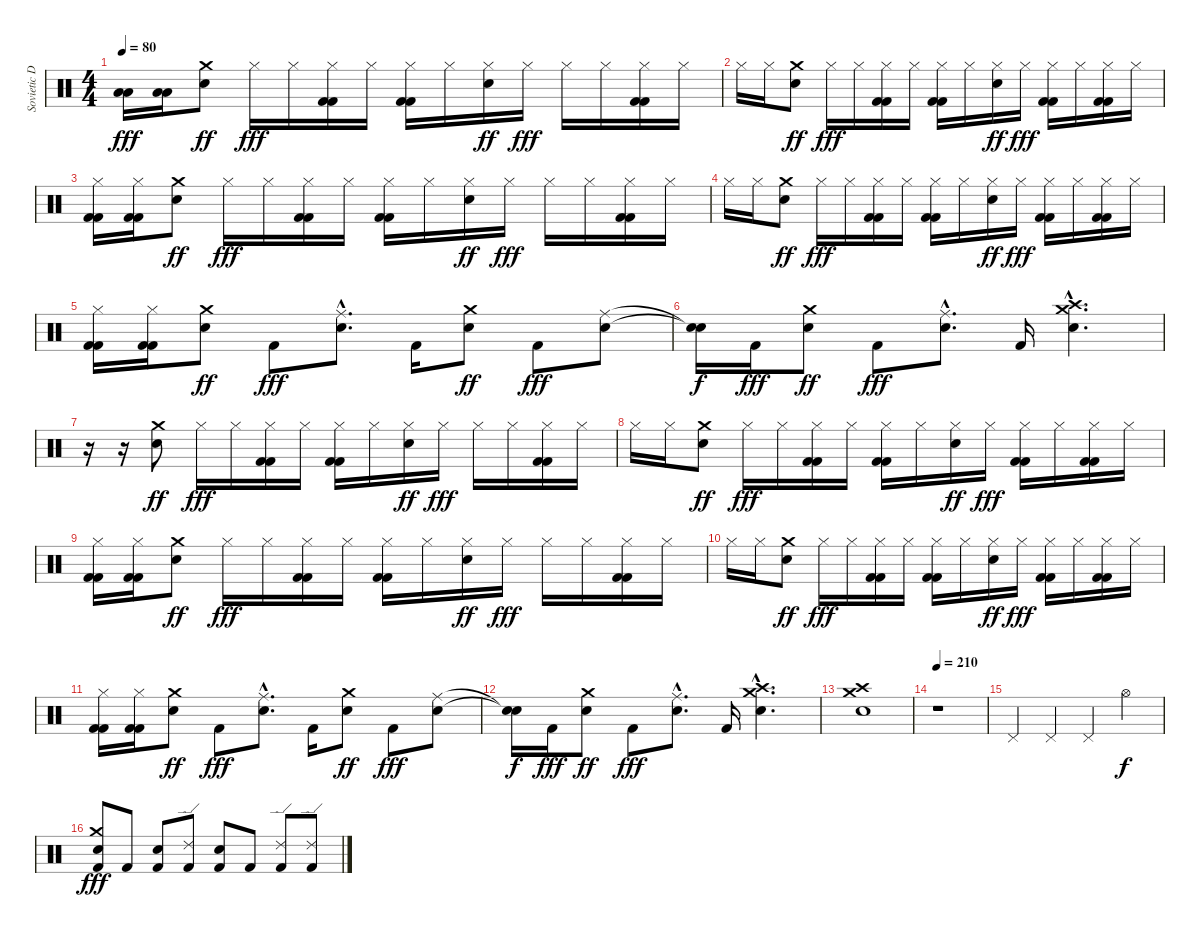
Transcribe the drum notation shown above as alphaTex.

\track ("Sovietic Drummer" "Sovietic D") {instrument percussion}
\staff {score}
\articulation defaults
\ts (4 4)
\tempo 80
\clef neutral
\ks c
("Low Tom (hit)" "Low Tom (hit)").16{dy fff} ("Low Tom (hit)" "Low Tom (hit)").16 ("Electric Snare (hit)" "Crash medium (hit)").8{dy ff} "Hi-Hat (closed)".16{dy fff} "Hi-Hat (closed)".16 ("Hi-Hat (closed)" "Kick (hit) 2" "Kick (hit) 2").16 "Hi-Hat (closed)".16 ("Hi-Hat (closed)" "Kick (hit) 2" "Kick (hit) 2").16 "Hi-Hat (closed)".16 ("Hi-Hat (closed)" "Electric Snare (hit)").16{dy ff} "Hi-Hat (closed)".16{dy fff} "Hi-Hat (closed)".16 "Hi-Hat (closed)".16 ("Hi-Hat (closed)" "Kick (hit) 2" "Kick (hit) 2").16 "Hi-Hat (closed)".16 |
"Hi-Hat (closed)".16 "Hi-Hat (closed)".16 ("Electric Snare (hit)" "Crash medium (hit)").8{dy ff} "Hi-Hat (closed)".16{dy fff} "Hi-Hat (closed)".16 ("Hi-Hat (closed)" "Kick (hit) 2" "Kick (hit) 2").16 "Hi-Hat (closed)".16 ("Hi-Hat (closed)" "Kick (hit) 2" "Kick (hit) 2").16 "Hi-Hat (closed)".16 ("Hi-Hat (closed)" "Electric Snare (hit)").16{dy ff} "Hi-Hat (closed)".16{dy fff} ("Hi-Hat (closed)" "Kick (hit) 2" "Kick (hit) 2").16 "Hi-Hat (closed)".16 ("Hi-Hat (closed)" "Kick (hit) 2" "Kick (hit) 2").16 "Hi-Hat (closed)".16 |
("Hi-Hat (closed)" "Kick (hit) 2" "Kick (hit) 2").16 ("Hi-Hat (closed)" "Kick (hit) 2" "Kick (hit) 2").16 ("Electric Snare (hit)" "Crash medium (hit)").8{dy ff} "Hi-Hat (closed)".16{dy fff} "Hi-Hat (closed)".16 ("Hi-Hat (closed)" "Kick (hit) 2" "Kick (hit) 2").16 "Hi-Hat (closed)".16 ("Hi-Hat (closed)" "Kick (hit) 2" "Kick (hit) 2").16 "Hi-Hat (closed)".16 ("Hi-Hat (closed)" "Electric Snare (hit)").16{dy ff} "Hi-Hat (closed)".16{dy fff} "Hi-Hat (closed)".16 "Hi-Hat (closed)".16 ("Hi-Hat (closed)" "Kick (hit) 2" "Kick (hit) 2").16 "Hi-Hat (closed)".16 |
"Hi-Hat (closed)".16 "Hi-Hat (closed)".16 ("Electric Snare (hit)" "Crash medium (hit)").8{dy ff} "Hi-Hat (closed)".16{dy fff} "Hi-Hat (closed)".16 ("Hi-Hat (closed)" "Kick (hit) 2" "Kick (hit) 2").16 "Hi-Hat (closed)".16 ("Hi-Hat (closed)" "Kick (hit) 2" "Kick (hit) 2").16 "Hi-Hat (closed)".16 ("Hi-Hat (closed)" "Electric Snare (hit)").16{dy ff} "Hi-Hat (closed)".16{dy fff} ("Hi-Hat (closed)" "Kick (hit) 2" "Kick (hit) 2").16 "Hi-Hat (closed)".16 ("Hi-Hat (closed)" "Kick (hit) 2" "Kick (hit) 2").16 "Hi-Hat (closed)".16 |
("Hi-Hat (closed)" "Kick (hit) 2" "Kick (hit) 2").16 ("Hi-Hat (closed)" "Kick (hit) 2" "Kick (hit) 2").16 ("Crash medium (hit)" "Snare (hit) 2").8{dy ff} "Kick (hit) 2".8{dy fff} ("Electric Snare (hit)"{hac} "Ride (middle)"{hac}).8{d} "Kick (hit) 2".16 ("Crash medium (hit)" "Snare (hit) 2").8{dy ff} "Kick (hit) 2".8{dy fff} ("Electric Snare (hit)" "Ride (middle)").8 |
("Snare (hit)"{t} "Snare (hit)"{t}).16{dy f} "Kick (hit) 2".16{dy fff} ("Crash medium (hit)" "Snare (hit) 2").8{dy ff} "Kick (hit) 2".8{dy fff} ("Electric Snare (hit)"{hac} "Ride (middle)"{hac}).8{d} "Kick (hit) 2".16 ("Crash medium (hit)"{hac} "Snare (hit) 2"{hac} "Crash high (hit)"{hac}).4{d} |
r.16 r.16 ("Electric Snare (hit)" "Crash medium (hit)").8{dy ff} "Hi-Hat (closed)".16{dy fff} "Hi-Hat (closed)".16 ("Hi-Hat (closed)" "Kick (hit) 2" "Kick (hit) 2").16 "Hi-Hat (closed)".16 ("Hi-Hat (closed)" "Kick (hit) 2" "Kick (hit) 2").16 "Hi-Hat (closed)".16 ("Hi-Hat (closed)" "Electric Snare (hit)").16{dy ff} "Hi-Hat (closed)".16{dy fff} "Hi-Hat (closed)".16 "Hi-Hat (closed)".16 ("Hi-Hat (closed)" "Kick (hit) 2" "Kick (hit) 2").16 "Hi-Hat (closed)".16 |
"Hi-Hat (closed)".16 "Hi-Hat (closed)".16 ("Electric Snare (hit)" "Crash medium (hit)").8{dy ff} "Hi-Hat (closed)".16{dy fff} "Hi-Hat (closed)".16 ("Hi-Hat (closed)" "Kick (hit) 2" "Kick (hit) 2").16 "Hi-Hat (closed)".16 ("Hi-Hat (closed)" "Kick (hit) 2" "Kick (hit) 2").16 "Hi-Hat (closed)".16 ("Hi-Hat (closed)" "Electric Snare (hit)").16{dy ff} "Hi-Hat (closed)".16{dy fff} ("Hi-Hat (closed)" "Kick (hit) 2" "Kick (hit) 2").16 "Hi-Hat (closed)".16 ("Hi-Hat (closed)" "Kick (hit) 2" "Kick (hit) 2").16 "Hi-Hat (closed)".16 |
("Hi-Hat (closed)" "Kick (hit) 2" "Kick (hit) 2").16 ("Hi-Hat (closed)" "Kick (hit) 2" "Kick (hit) 2").16 ("Electric Snare (hit)" "Crash medium (hit)").8{dy ff} "Hi-Hat (closed)".16{dy fff} "Hi-Hat (closed)".16 ("Hi-Hat (closed)" "Kick (hit) 2" "Kick (hit) 2").16 "Hi-Hat (closed)".16 ("Hi-Hat (closed)" "Kick (hit) 2" "Kick (hit) 2").16 "Hi-Hat (closed)".16 ("Hi-Hat (closed)" "Electric Snare (hit)").16{dy ff} "Hi-Hat (closed)".16{dy fff} "Hi-Hat (closed)".16 "Hi-Hat (closed)".16 ("Hi-Hat (closed)" "Kick (hit) 2" "Kick (hit) 2").16 "Hi-Hat (closed)".16 |
"Hi-Hat (closed)".16 "Hi-Hat (closed)".16 ("Electric Snare (hit)" "Crash medium (hit)").8{dy ff} "Hi-Hat (closed)".16{dy fff} "Hi-Hat (closed)".16 ("Hi-Hat (closed)" "Kick (hit) 2" "Kick (hit) 2").16 "Hi-Hat (closed)".16 ("Hi-Hat (closed)" "Kick (hit) 2" "Kick (hit) 2").16 "Hi-Hat (closed)".16 ("Hi-Hat (closed)" "Electric Snare (hit)").16{dy ff} "Hi-Hat (closed)".16{dy fff} ("Hi-Hat (closed)" "Kick (hit) 2" "Kick (hit) 2").16 "Hi-Hat (closed)".16 ("Hi-Hat (closed)" "Kick (hit) 2" "Kick (hit) 2").16 "Hi-Hat (closed)".16 |
("Hi-Hat (closed)" "Kick (hit) 2" "Kick (hit) 2").16 ("Hi-Hat (closed)" "Kick (hit) 2" "Kick (hit) 2").16 ("Crash medium (hit)" "Snare (hit) 2").8{dy ff} "Kick (hit) 2".8{dy fff} ("Electric Snare (hit)"{hac} "Ride (middle)"{hac}).8{d} "Kick (hit) 2".16 ("Crash medium (hit)" "Snare (hit) 2").8{dy ff} "Kick (hit) 2".8{dy fff} ("Electric Snare (hit)" "Ride (middle)").8 |
("Snare (hit)"{t} "Snare (hit)"{t}).16{dy f} "Kick (hit) 2".16{dy fff} ("Crash medium (hit)" "Snare (hit) 2").8{dy ff} "Kick (hit) 2".8{dy fff} ("Electric Snare (hit)"{hac} "Ride (middle)"{hac}).8{d} "Kick (hit) 2".16 ("Crash medium (hit)"{hac} "Snare (hit) 2"{hac} "Crash high (hit)"{hac}).4{d} |
("Electric Snare (hit)" "Crash medium (hit)" "Crash high (hit)").1 |
\tempo 210
r.1 |
"Pedal Hi-Hat (hit)".4 "Pedal Hi-Hat (hit)".4 "Pedal Hi-Hat (hit)".4 "Hi-Hat (open)".4{dy f} |
("Electric Snare (hit)" "Crash medium (hit)" "Kick (hit) 2").8{dy fff} "Kick (hit) 2".8 ("Electric Snare (hit)" "Kick (hit) 2").8 ("Ride (edge) 2" "Kick (hit) 2").8 ("Electric Snare (hit)" "Kick (hit) 2").8 "Kick (hit) 2".8 ("Ride (edge) 2" "Kick (hit) 2").8 ("Ride (edge) 2" "Kick (hit) 2").8
